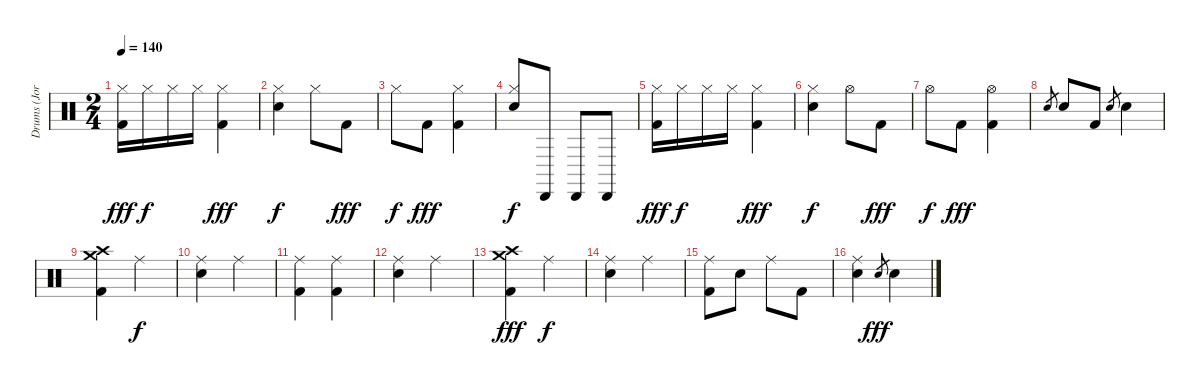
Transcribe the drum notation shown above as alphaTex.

\track ("Drums (Jordan Hastings)" "Drums (Jor") {instrument percussion}
\staff {score}
\articulation defaults
\ts (2 4)
\tempo 140
\clef neutral
\ks c
("Hi-Hat (closed)" "Kick (hit) 2").16{dy fff} "Hi-Hat (closed)".16{dy f} "Hi-Hat (closed)".16 "Hi-Hat (closed)".16 ("Hi-Hat (closed)" "Kick (hit) 2").4{dy fff} |
("Hi-Hat (closed)" "Electric Snare (hit)").4{dy f} "Hi-Hat (closed)".8 "Kick (hit) 2".8{dy fff} |
"Hi-Hat (closed)".8{dy f} "Kick (hit) 2".8{dy fff} ("Hi-Hat (closed)" "Kick (hit) 2").4 |
("Hi-Hat (closed)" "Electric Snare (hit)").8{dy f} "Cabasa (hit)".8 "Cabasa (hit)".8 "Cabasa (hit)".8 |
("Hi-Hat (closed)" "Kick (hit) 2").16{dy fff} "Hi-Hat (closed)".16{dy f} "Hi-Hat (closed)".16 "Hi-Hat (closed)".16 ("Hi-Hat (closed)" "Kick (hit) 2").4{dy fff} |
("Hi-Hat (closed)" "Electric Snare (hit)").4{dy f} "Hi-Hat (open)".8 "Kick (hit) 2".8{dy fff} |
"Hi-Hat (open)".8{dy f} "Kick (hit) 2".8{dy fff} ("Hi-Hat (open)" "Kick (hit) 2").4 |
"Electric Snare (hit)".8{gr} "Electric Snare (hit)".8 "Kick (hit) 2".8 "Electric Snare (hit)".8{gr} "Electric Snare (hit)".4 |
("Crash medium (hit)" "Crash high (hit)" "Kick (hit) 2").4 "Ride (middle)".4{dy f} |
("Ride (middle)" "Electric Snare (hit)").4 "Ride (middle)".4 |
("Ride (middle)" "Kick (hit) 2").4 ("Ride (middle)" "Kick (hit) 2").4 |
("Ride (middle)" "Electric Snare (hit)").4 "Ride (middle)".4 |
("Crash medium (hit)" "Crash high (hit)" "Kick (hit) 2").4{dy fff} "Ride (middle)".4{dy f} |
("Ride (middle)" "Electric Snare (hit)").4 "Ride (middle)".4 |
("Ride (middle)" "Kick (hit) 2").8 "Electric Snare (hit)".8 "Ride (middle)".8 "Kick (hit) 2".8 |
("Ride (middle)" "Electric Snare (hit)").4 "Electric Snare (hit)".8{gr dy fff} "Electric Snare (hit)".4
